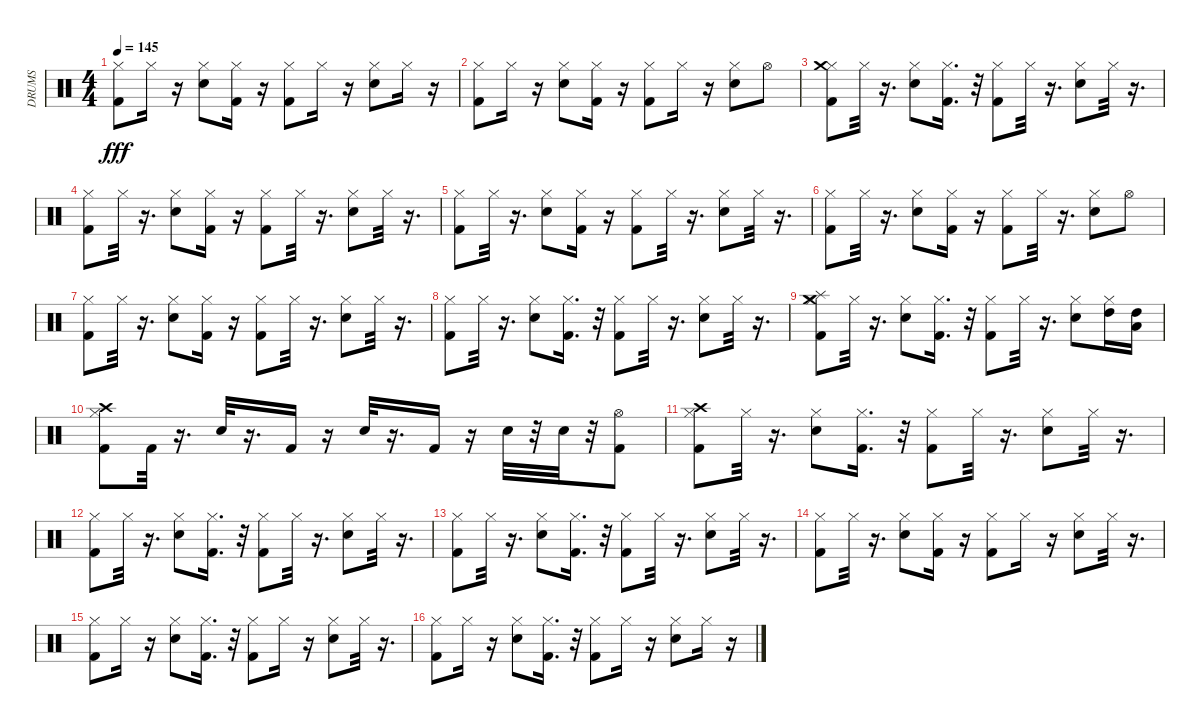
\track ("DRUMS" "DRUMS") {instrument percussion}
\staff {score}
\articulation defaults
\ts (4 4)
\tempo 145
\clef neutral
\ks c
("Kick (hit) 2" "Hi-Hat (closed)").8{dy fff} "Hi-Hat (closed)".16 r.16 ("Electric Snare (hit)" "Hi-Hat (closed)").8 ("Kick (hit) 2" "Hi-Hat (closed)").16 r.16 ("Kick (hit) 2" "Hi-Hat (closed)").8 "Hi-Hat (closed)".16 r.16 ("Electric Snare (hit)" "Hi-Hat (closed)").8 "Hi-Hat (closed)".16 r.16 |
("Kick (hit) 2" "Hi-Hat (closed)").8 "Hi-Hat (closed)".16 r.16 ("Electric Snare (hit)" "Hi-Hat (closed)").8 ("Kick (hit) 2" "Hi-Hat (closed)").16 r.16 ("Kick (hit) 2" "Hi-Hat (closed)").8 "Hi-Hat (closed)".16 r.16 ("Electric Snare (hit)" "Hi-Hat (closed)").8 "Hi-Hat (open)".8 |
("Kick (hit) 2" "Hi-Hat (closed)" "Crash medium (hit)").8 "Hi-Hat (closed)".32 r.16{d} ("Electric Snare (hit)" "Hi-Hat (closed)").8 ("Kick (hit) 2" "Hi-Hat (closed)").16{d} r.32 ("Kick (hit) 2" "Hi-Hat (closed)").8 "Hi-Hat (closed)".32 r.16{d} ("Electric Snare (hit)" "Hi-Hat (closed)").8 "Hi-Hat (closed)".32 r.16{d} |
("Kick (hit) 2" "Hi-Hat (closed)").8 "Hi-Hat (closed)".32 r.16{d} ("Electric Snare (hit)" "Hi-Hat (closed)").8 ("Kick (hit) 2" "Hi-Hat (closed)").16 r.16 ("Kick (hit) 2" "Hi-Hat (closed)").8 "Hi-Hat (closed)".32 r.16{d} ("Electric Snare (hit)" "Hi-Hat (closed)").8 "Hi-Hat (closed)".32 r.16{d} |
("Kick (hit) 2" "Hi-Hat (closed)").8 "Hi-Hat (closed)".32 r.16{d} ("Electric Snare (hit)" "Hi-Hat (closed)").8 ("Kick (hit) 2" "Hi-Hat (closed)").16 r.16 ("Kick (hit) 2" "Hi-Hat (closed)").8 "Hi-Hat (closed)".32 r.16{d} ("Electric Snare (hit)" "Hi-Hat (closed)").8 "Hi-Hat (closed)".32 r.16{d} |
("Kick (hit) 2" "Hi-Hat (closed)").8 "Hi-Hat (closed)".32 r.16{d} ("Electric Snare (hit)" "Hi-Hat (closed)").8 ("Kick (hit) 2" "Hi-Hat (closed)").16 r.16 ("Kick (hit) 2" "Hi-Hat (closed)").8 "Hi-Hat (closed)".32 r.16{d} ("Electric Snare (hit)" "Hi-Hat (closed)").8 "Hi-Hat (open)".8 |
("Kick (hit) 2" "Hi-Hat (closed)").8 "Hi-Hat (closed)".32 r.16{d} ("Electric Snare (hit)" "Hi-Hat (closed)").8 ("Kick (hit) 2" "Hi-Hat (closed)").16 r.16 ("Kick (hit) 2" "Hi-Hat (closed)").8 "Hi-Hat (closed)".32 r.16{d} ("Electric Snare (hit)" "Hi-Hat (closed)").8 "Hi-Hat (closed)".32 r.16{d} |
("Kick (hit) 2" "Hi-Hat (closed)").8 "Hi-Hat (closed)".32 r.16{d} ("Electric Snare (hit)" "Hi-Hat (closed)").8 ("Kick (hit) 2" "Hi-Hat (closed)").16{d} r.32 ("Kick (hit) 2" "Hi-Hat (closed)").8 "Hi-Hat (closed)".32 r.16{d} ("Electric Snare (hit)" "Hi-Hat (closed)").8 "Hi-Hat (closed)".32 r.16{d} |
("Kick (hit) 2" "Hi-Hat (closed)" "Splash (hit)" "Crash medium (hit)").8 "Hi-Hat (closed)".32 r.16{d} ("Electric Snare (hit)" "Hi-Hat (closed)").8 ("Kick (hit) 2" "Hi-Hat (closed)").16{d} r.32 ("Kick (hit) 2" "Hi-Hat (closed)").8 "Hi-Hat (closed)".32 r.16{d} ("Electric Snare (hit)" "Hi-Hat (closed)").8 ("Hi-Hat (closed)" "High Tom (hit)").16 ("Low Tom (hit)" "High Tom (hit)").16 |
("Kick (hit) 2" "Hi-Hat (closed)" "Crash high (hit)").8 "Kick (hit) 2".32 r.16{d} "Electric Snare (hit)".32 r.16{d} "Kick (hit) 2".16 r.16 "Electric Snare (hit)".32 r.16{d} "Kick (hit) 2".16 r.16 "Electric Snare (hit)".32 r.32 "Electric Snare (hit)".32 r.32 ("Kick (hit) 2" "Hi-Hat (open)").8 |
("Kick (hit) 2" "Hi-Hat (closed)" "Crash high (hit)").8 "Hi-Hat (closed)".32 r.16{d} ("Electric Snare (hit)" "Hi-Hat (closed)").8 ("Kick (hit) 2" "Hi-Hat (closed)").16{d} r.32 ("Kick (hit) 2" "Hi-Hat (closed)").8 "Hi-Hat (closed)".32 r.16{d} ("Electric Snare (hit)" "Hi-Hat (closed)").8 "Hi-Hat (closed)".32 r.16{d} |
("Kick (hit) 2" "Hi-Hat (closed)").8 "Hi-Hat (closed)".32 r.16{d} ("Electric Snare (hit)" "Hi-Hat (closed)").8 ("Kick (hit) 2" "Hi-Hat (closed)").16{d} r.32 ("Kick (hit) 2" "Hi-Hat (closed)").8 "Hi-Hat (closed)".32 r.16{d} ("Electric Snare (hit)" "Hi-Hat (closed)").8 "Hi-Hat (closed)".32 r.16{d} |
("Kick (hit) 2" "Hi-Hat (closed)").8 "Hi-Hat (closed)".32 r.16{d} ("Electric Snare (hit)" "Hi-Hat (closed)").8 ("Kick (hit) 2" "Hi-Hat (closed)").16{d} r.32 ("Kick (hit) 2" "Hi-Hat (closed)").8 "Hi-Hat (closed)".32 r.16{d} ("Electric Snare (hit)" "Hi-Hat (closed)").8 "Hi-Hat (closed)".32 r.16{d} |
("Kick (hit) 2" "Hi-Hat (closed)").8 "Hi-Hat (closed)".32 r.16{d} ("Electric Snare (hit)" "Hi-Hat (closed)").8 ("Kick (hit) 2" "Hi-Hat (closed)").16 r.16 ("Kick (hit) 2" "Hi-Hat (closed)").8 "Hi-Hat (closed)".16 r.16 ("Electric Snare (hit)" "Hi-Hat (closed)").8 "Hi-Hat (closed)".32 r.16{d} |
("Kick (hit) 2" "Hi-Hat (closed)").8 "Hi-Hat (closed)".16 r.16 ("Electric Snare (hit)" "Hi-Hat (closed)").8 ("Kick (hit) 2" "Hi-Hat (closed)").16{d} r.32 ("Kick (hit) 2" "Hi-Hat (closed)").8 "Hi-Hat (closed)".16 r.16 ("Electric Snare (hit)" "Hi-Hat (closed)").8 "Hi-Hat (closed)".32 r.16{d} |
("Kick (hit) 2" "Hi-Hat (closed)").8 "Hi-Hat (closed)".16 r.16 ("Electric Snare (hit)" "Hi-Hat (closed)").8 ("Kick (hit) 2" "Hi-Hat (closed)").16{d} r.32 ("Kick (hit) 2" "Hi-Hat (closed)").8 "Hi-Hat (closed)".16 r.16 ("Electric Snare (hit)" "Hi-Hat (closed)").8 "Hi-Hat (closed)".16 r.16
